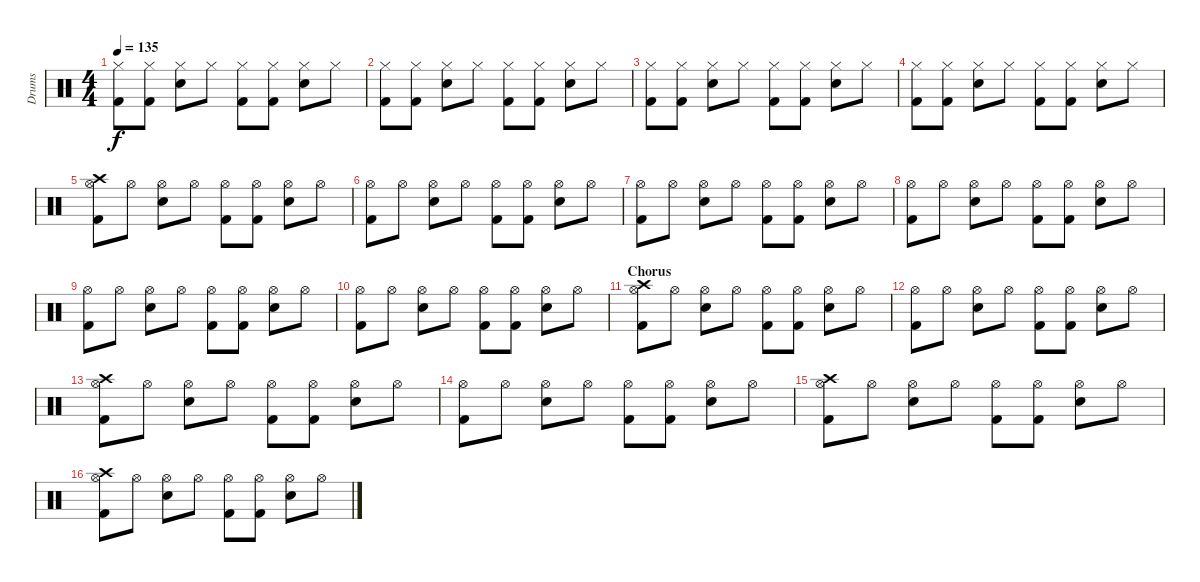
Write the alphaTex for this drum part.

\track ("Drums" "Drums") {instrument percussion}
\staff {score}
\articulation defaults
\ts (4 4)
\tempo 135
\clef neutral
\ks c
("Hi-Hat (closed)" "Kick (hit) 2").8{dy f} ("Hi-Hat (closed)" "Kick (hit) 2").8 ("Hi-Hat (closed)" "Snare (hit) 2").8 "Hi-Hat (closed)".8 ("Hi-Hat (closed)" "Kick (hit) 2").8 ("Hi-Hat (closed)" "Kick (hit) 2").8 ("Hi-Hat (closed)" "Snare (hit) 2").8 "Hi-Hat (closed)".8 |
("Hi-Hat (closed)" "Kick (hit) 2").8 ("Hi-Hat (closed)" "Kick (hit) 2").8 ("Hi-Hat (closed)" "Snare (hit) 2").8 "Hi-Hat (closed)".8 ("Hi-Hat (closed)" "Kick (hit) 2").8 ("Hi-Hat (closed)" "Kick (hit) 2").8 ("Hi-Hat (closed)" "Snare (hit) 2").8 "Hi-Hat (closed)".8 |
("Hi-Hat (closed)" "Kick (hit) 2").8 ("Hi-Hat (closed)" "Kick (hit) 2").8 ("Hi-Hat (closed)" "Snare (hit) 2").8 "Hi-Hat (closed)".8 ("Hi-Hat (closed)" "Kick (hit) 2").8 ("Hi-Hat (closed)" "Kick (hit) 2").8 ("Hi-Hat (closed)" "Snare (hit) 2").8 "Hi-Hat (closed)".8 |
("Hi-Hat (closed)" "Kick (hit) 2").8 ("Hi-Hat (closed)" "Kick (hit) 2").8 ("Hi-Hat (closed)" "Snare (hit) 2").8 "Hi-Hat (closed)".8 ("Hi-Hat (closed)" "Kick (hit) 2").8 ("Hi-Hat (closed)" "Kick (hit) 2").8 ("Hi-Hat (closed)" "Snare (hit) 2").8 "Hi-Hat (closed)".8 |
("Crash high (hit)" "Hi-Hat (open)" "Kick (hit) 2").8 "Hi-Hat (open)".8 ("Hi-Hat (open)" "Snare (hit) 2").8 "Hi-Hat (open)".8 ("Hi-Hat (open)" "Kick (hit) 2").8 ("Hi-Hat (open)" "Kick (hit) 2").8 ("Hi-Hat (open)" "Snare (hit) 2").8 "Hi-Hat (open)".8 |
("Hi-Hat (open)" "Kick (hit) 2").8 "Hi-Hat (open)".8 ("Hi-Hat (open)" "Snare (hit) 2").8 "Hi-Hat (open)".8 ("Hi-Hat (open)" "Kick (hit) 2").8 ("Hi-Hat (open)" "Kick (hit) 2").8 ("Hi-Hat (open)" "Snare (hit) 2").8 "Hi-Hat (open)".8 |
("Hi-Hat (open)" "Kick (hit) 2").8 "Hi-Hat (open)".8 ("Hi-Hat (open)" "Snare (hit) 2").8 "Hi-Hat (open)".8 ("Hi-Hat (open)" "Kick (hit) 2").8 ("Hi-Hat (open)" "Kick (hit) 2").8 ("Hi-Hat (open)" "Snare (hit) 2").8 "Hi-Hat (open)".8 |
("Hi-Hat (open)" "Kick (hit) 2").8 "Hi-Hat (open)".8 ("Hi-Hat (open)" "Snare (hit) 2").8 "Hi-Hat (open)".8 ("Hi-Hat (open)" "Kick (hit) 2").8 ("Hi-Hat (open)" "Kick (hit) 2").8 ("Hi-Hat (open)" "Snare (hit) 2").8 "Hi-Hat (open)".8 |
("Hi-Hat (open)" "Kick (hit) 2").8 "Hi-Hat (open)".8 ("Hi-Hat (open)" "Snare (hit) 2").8 "Hi-Hat (open)".8 ("Hi-Hat (open)" "Kick (hit) 2").8 ("Hi-Hat (open)" "Kick (hit) 2").8 ("Hi-Hat (open)" "Snare (hit) 2").8 "Hi-Hat (open)".8 |
("Hi-Hat (open)" "Kick (hit) 2").8 "Hi-Hat (open)".8 ("Hi-Hat (open)" "Snare (hit) 2").8 "Hi-Hat (open)".8 ("Hi-Hat (open)" "Kick (hit) 2").8 ("Hi-Hat (open)" "Kick (hit) 2").8 ("Hi-Hat (open)" "Snare (hit) 2").8 "Hi-Hat (open)".8 |
\section ("" "Chorus")
("Crash high (hit)" "Hi-Hat (open)" "Kick (hit) 2").8 "Hi-Hat (open)".8 ("Hi-Hat (open)" "Snare (hit) 2").8 "Hi-Hat (open)".8 ("Hi-Hat (open)" "Kick (hit) 2").8 ("Hi-Hat (open)" "Kick (hit) 2").8 ("Hi-Hat (open)" "Snare (hit) 2").8 "Hi-Hat (open)".8 |
("Hi-Hat (open)" "Kick (hit) 2").8 "Hi-Hat (open)".8 ("Hi-Hat (open)" "Snare (hit) 2").8 "Hi-Hat (open)".8 ("Hi-Hat (open)" "Kick (hit) 2").8 ("Hi-Hat (open)" "Kick (hit) 2").8 ("Hi-Hat (open)" "Snare (hit) 2").8 "Hi-Hat (open)".8 |
("Crash high (hit)" "Hi-Hat (open)" "Kick (hit) 2").8 "Hi-Hat (open)".8 ("Hi-Hat (open)" "Snare (hit) 2").8 "Hi-Hat (open)".8 ("Hi-Hat (open)" "Kick (hit) 2").8 ("Hi-Hat (open)" "Kick (hit) 2").8 ("Hi-Hat (open)" "Snare (hit) 2").8 "Hi-Hat (open)".8 |
("Hi-Hat (open)" "Kick (hit) 2").8 "Hi-Hat (open)".8 ("Hi-Hat (open)" "Snare (hit) 2").8 "Hi-Hat (open)".8 ("Hi-Hat (open)" "Kick (hit) 2").8 ("Hi-Hat (open)" "Kick (hit) 2").8 ("Hi-Hat (open)" "Snare (hit) 2").8 "Hi-Hat (open)".8 |
("Crash high (hit)" "Hi-Hat (open)" "Kick (hit) 2").8 "Hi-Hat (open)".8 ("Hi-Hat (open)" "Snare (hit) 2").8 "Hi-Hat (open)".8 ("Hi-Hat (open)" "Kick (hit) 2").8 ("Hi-Hat (open)" "Kick (hit) 2").8 ("Hi-Hat (open)" "Snare (hit) 2").8 "Hi-Hat (open)".8 |
("Crash high (hit)" "Hi-Hat (open)" "Kick (hit) 2").8 "Hi-Hat (open)".8 ("Hi-Hat (open)" "Snare (hit) 2").8 "Hi-Hat (open)".8 ("Hi-Hat (open)" "Kick (hit) 2").8 ("Hi-Hat (open)" "Kick (hit) 2").8 ("Hi-Hat (open)" "Snare (hit) 2").8 "Hi-Hat (open)".8
